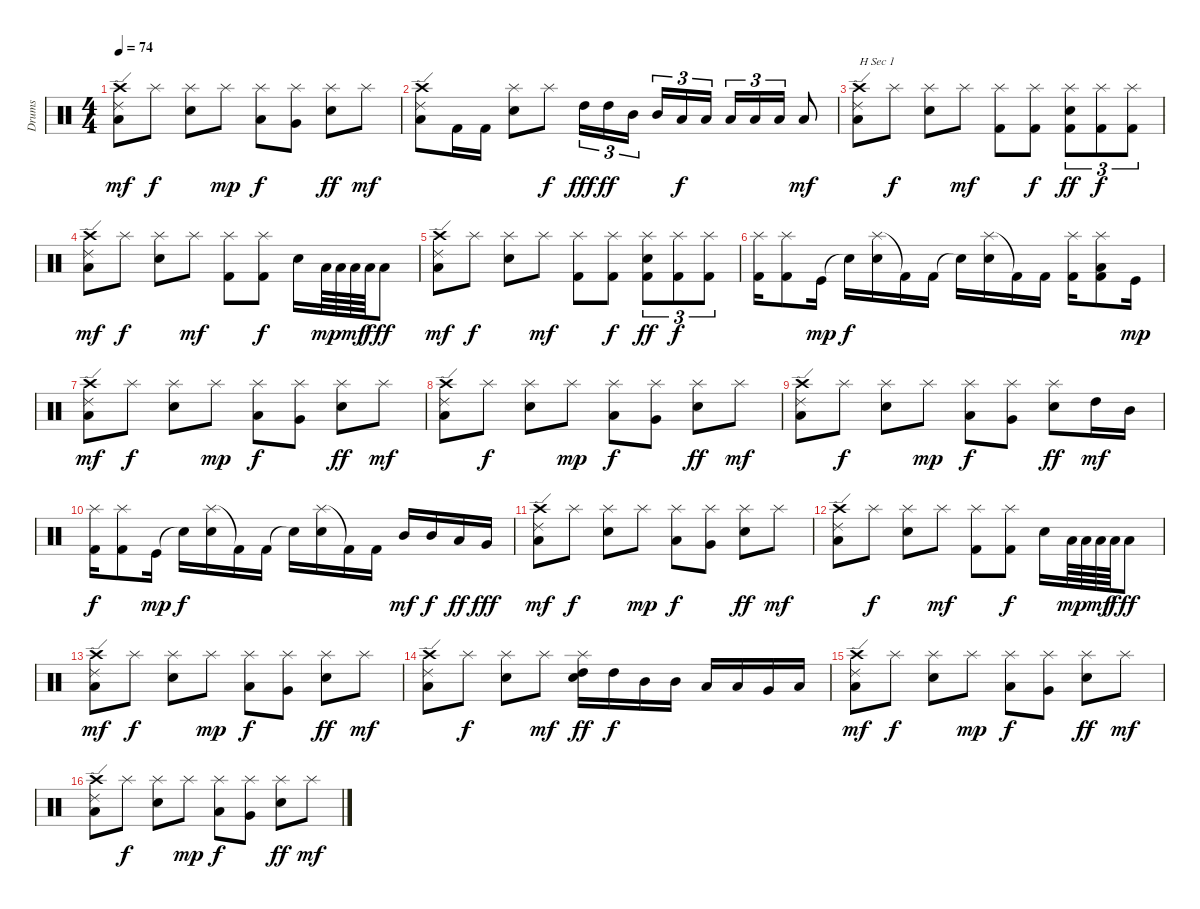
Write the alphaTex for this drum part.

\track ("Drums" "Drums") {instrument percussion}
\staff {score}
\articulation defaults
\ts (4 4)
\tempo 74
\clef neutral
\ks c
("Crash high (hit)" "Ride (edge) 2" "Low Tom (hit)").8{dy mf} "Splash (hit)".8{dy f} ("Electric Snare (hit)" "Splash (hit)").8 "Splash (hit)".8{dy mp} ("Low Tom (hit)" "Splash (hit)").8{dy f} ("Very Low Tom (hit)" "Splash (hit)").8 ("Splash (hit)" "Electric Snare (hit)").8{dy ff} "Splash (hit)".8{dy mf} |
("Crash high (hit)" "Ride (edge) 2" "Low Tom (hit)").8 "Kick (hit) 2".16 "Kick (hit) 2".16 ("Splash (hit)" "Electric Snare (hit)").8 "Splash (hit)".8{dy f} "High Tom (hit)".16{tu (3 2) dy fff} "High Tom (hit)".16{tu (3 2) dy ff} "Mid Tom (hit)".16{tu (3 2) beam splitsecondary} "Mid Tom (hit)".16{tu (3 2)} "Low Tom (hit)".16{tu (3 2) dy f} "Low Tom (hit)".16{tu (3 2)} "Low Floor Tom (hit)".16{tu (3 2)} "Low Floor Tom (hit)".16{tu (3 2)} "Low Floor Tom (hit)".16{tu (3 2)} "Low Floor Tom (hit)".8{dy mf} |
("Crash high (hit)" "Ride (edge) 2" "Low Tom (hit)").8{txt "H Sec 1"} "Splash (hit)".8{dy f} ("Electric Snare (hit)" "Splash (hit)").8 "Splash (hit)".8{dy mf} ("Kick (hit) 2" "Splash (hit)").8 ("Kick (hit) 2" "Splash (hit)").8{dy f} ("Electric Snare (hit)" "Kick (hit) 2" "Splash (hit)").8{tu (3 2) dy ff} ("Kick (hit) 2" "Splash (hit)").8{tu (3 2) dy f} ("Kick (hit) 2" "Splash (hit)").8{tu (3 2)} |
("Crash high (hit)" "Ride (edge) 2" "Low Tom (hit)").8{dy mf} "Splash (hit)".8{dy f} ("Electric Snare (hit)" "Splash (hit)").8 "Splash (hit)".8{dy mf} ("Kick (hit) 2" "Splash (hit)").8 ("Kick (hit) 2" "Splash (hit)").8{dy f} "Electric Snare (hit)".16 "Low Tom (hit)".64{dy mp} "Low Tom (hit)".64 "Low Tom (hit)".64{dy mf} "Low Tom (hit)".64{dy f} "Low Tom (hit)".8{dy ff} |
("Crash high (hit)" "Ride (edge) 2" "Low Tom (hit)").8{dy mf} "Splash (hit)".8{dy f} ("Electric Snare (hit)" "Splash (hit)").8 "Splash (hit)".8{dy mf} ("Kick (hit) 2" "Splash (hit)").8 ("Kick (hit) 2" "Splash (hit)").8{dy f} ("Electric Snare (hit)" "Kick (hit) 2" "Splash (hit)").8{tu (3 2) dy ff} ("Kick (hit) 2" "Splash (hit)").8{tu (3 2) dy f} ("Kick (hit) 2" "Splash (hit)").8{tu (3 2)} |
("Splash (hit)" "Kick (hit) 2").16 ("Splash (hit)" "Kick (hit) 2").8 "Kick (hit)".16{dy mp} "Snare (hit)"{t}.16{dy f} ("Splash (hit)" "Electric Snare (hit)").16 "Kick (hit) 2"{t}.16 "Kick (hit) 2".16 "Snare (hit)"{t}.16 ("Splash (hit)" "Electric Snare (hit)").16 "Kick (hit) 2"{t}.16 "Kick (hit) 2".16 ("Splash (hit)" "Kick (hit) 2").16 ("Splash (hit)" "Kick (hit) 2" "Low Tom (hit)").8 "Kick (hit)".16{dy mp} |
("Crash high (hit)" "Ride (edge) 2" "Low Tom (hit)").8{dy mf} "Splash (hit)".8{dy f} ("Electric Snare (hit)" "Splash (hit)").8 "Splash (hit)".8{dy mp} ("Low Tom (hit)" "Splash (hit)").8{dy f} ("Very Low Tom (hit)" "Splash (hit)").8 ("Splash (hit)" "Electric Snare (hit)").8{dy ff} "Splash (hit)".8{dy mf} |
("Crash high (hit)" "Ride (edge) 2" "Low Tom (hit)").8 "Splash (hit)".8{dy f} ("Electric Snare (hit)" "Splash (hit)").8 "Splash (hit)".8{dy mp} ("Low Tom (hit)" "Splash (hit)").8{dy f} ("Very Low Tom (hit)" "Splash (hit)").8 ("Splash (hit)" "Electric Snare (hit)").8{dy ff} "Splash (hit)".8{dy mf} |
("Crash high (hit)" "Ride (edge) 2" "Low Tom (hit)").8 "Splash (hit)".8{dy f} ("Electric Snare (hit)" "Splash (hit)").8 "Splash (hit)".8{dy mp} ("Low Tom (hit)" "Splash (hit)").8{dy f} ("Very Low Tom (hit)" "Splash (hit)").8 ("Splash (hit)" "Electric Snare (hit)").8{dy ff} "High Tom (hit)".16{dy mf} "Mid Tom (hit)".16 |
("Splash (hit)" "Kick (hit) 2").16{dy f} ("Splash (hit)" "Kick (hit) 2").8 "Kick (hit)".16{dy mp} "Snare (hit)"{t}.16{dy f} ("Splash (hit)" "Electric Snare (hit)").16 "Kick (hit) 2"{t}.16 "Kick (hit) 2".16 "Snare (hit)"{t}.16 ("Splash (hit)" "Electric Snare (hit)").16 "Kick (hit) 2"{t}.16 "Kick (hit) 2".16 "Mid Tom (hit)".16{dy mf} "Mid Tom (hit)".16{dy f} "Low Tom (hit)".16{dy ff} "Very Low Tom (hit)".16{dy fff} |
("Crash high (hit)" "Ride (edge) 2" "Low Tom (hit)").8{dy mf} "Splash (hit)".8{dy f} ("Electric Snare (hit)" "Splash (hit)").8 "Splash (hit)".8{dy mp} ("Low Tom (hit)" "Splash (hit)").8{dy f} ("Very Low Tom (hit)" "Splash (hit)").8 ("Splash (hit)" "Electric Snare (hit)").8{dy ff} "Splash (hit)".8{dy mf} |
("Crash high (hit)" "Ride (edge) 2" "Low Tom (hit)").8 "Splash (hit)".8{dy f} ("Electric Snare (hit)" "Splash (hit)").8 "Splash (hit)".8{dy mf} ("Kick (hit) 2" "Splash (hit)").8 ("Kick (hit) 2" "Splash (hit)").8{dy f} "Electric Snare (hit)".16 "Low Tom (hit)".64{dy mp} "Low Tom (hit)".64 "Low Tom (hit)".64{dy mf} "Low Tom (hit)".64{dy f} "Low Tom (hit)".8{dy ff} |
("Crash high (hit)" "Ride (edge) 2" "Low Tom (hit)").8{dy mf} "Splash (hit)".8{dy f} ("Electric Snare (hit)" "Splash (hit)").8 "Splash (hit)".8{dy mp} ("Low Tom (hit)" "Splash (hit)").8{dy f} ("Very Low Tom (hit)" "Splash (hit)").8 ("Splash (hit)" "Electric Snare (hit)").8{dy ff} "Splash (hit)".8{dy mf} |
("Crash high (hit)" "Ride (edge) 2" "Low Tom (hit)").8 "Splash (hit)".8{dy f} ("Electric Snare (hit)" "Splash (hit)").8 "Splash (hit)".8{dy mf} ("Splash (hit)" "High Tom (hit)" "Electric Snare (hit)").16{dy ff} "High Tom (hit)".16{dy f} "Mid Tom (hit)".16 "Mid Tom (hit)".16 "Low Tom (hit)".16 "Low Tom (hit)".16 "Very Low Tom (hit)".16 "Low Floor Tom (hit)".16 |
("Crash high (hit)" "Ride (edge) 2" "Low Tom (hit)").8{dy mf} "Splash (hit)".8{dy f} ("Electric Snare (hit)" "Splash (hit)").8 "Splash (hit)".8{dy mp} ("Low Tom (hit)" "Splash (hit)").8{dy f} ("Very Low Tom (hit)" "Splash (hit)").8 ("Splash (hit)" "Electric Snare (hit)").8{dy ff} "Splash (hit)".8{dy mf} |
("Crash high (hit)" "Ride (edge) 2" "Low Tom (hit)").8 "Splash (hit)".8{dy f} ("Electric Snare (hit)" "Splash (hit)").8 "Splash (hit)".8{dy mp} ("Low Tom (hit)" "Splash (hit)").8{dy f} ("Very Low Tom (hit)" "Splash (hit)").8 ("Splash (hit)" "Electric Snare (hit)").8{dy ff} "Splash (hit)".8{dy mf}
